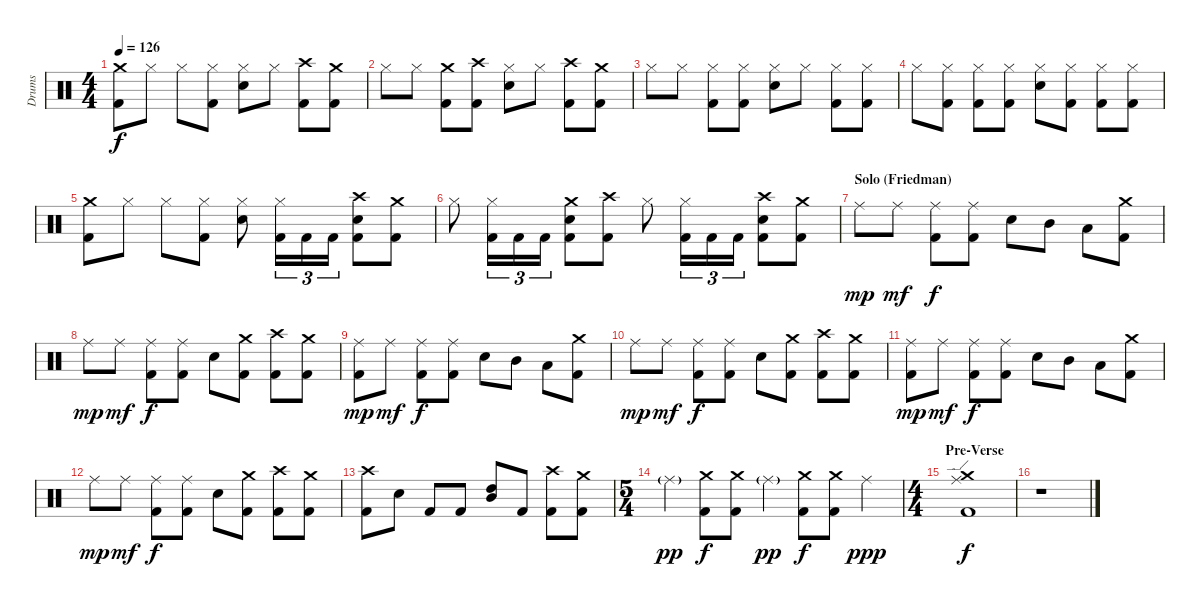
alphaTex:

\bracketExtendMode groupsimilarinstruments
\track ("Drumkit" "Drums") {solo instrument percussion}
\staff {score}
\articulation defaults
\ts (4 4)
\tempo 126
\clef neutral
\ks c
("Crash medium (hit)" "Kick (hit) 2").8{dy f} "Hi-Hat (closed)".8 "Hi-Hat (closed)".8 ("Hi-Hat (closed)" "Kick (hit) 2").8 ("Hi-Hat (closed)" "Snare (hit) 2").8 "Hi-Hat (closed)".8 ("Crash high (hit)" "Kick (hit) 2").8 ("Crash medium (hit)" "Kick (hit) 2").8 |
"Hi-Hat (closed)".8 "Hi-Hat (closed)".8 ("Crash medium (hit)" "Kick (hit) 2").8 ("Crash high (hit)" "Kick (hit) 2").8 ("Hi-Hat (closed)" "Snare (hit) 2").8 "Hi-Hat (closed)".8 ("Crash high (hit)" "Kick (hit) 2").8 ("Crash medium (hit)" "Kick (hit) 2").8 |
"Hi-Hat (closed)".8 "Hi-Hat (closed)".8 ("Hi-Hat (closed)" "Kick (hit) 2").8 ("Hi-Hat (closed)" "Kick (hit) 2").8 ("Hi-Hat (closed)" "Snare (hit) 2").8 "Hi-Hat (closed)".8 ("Hi-Hat (closed)" "Kick (hit) 2").8 ("Hi-Hat (closed)" "Kick (hit) 2").8 |
"Hi-Hat (closed)".8 ("Hi-Hat (closed)" "Kick (hit) 2").8 ("Hi-Hat (closed)" "Kick (hit) 2").8 ("Hi-Hat (closed)" "Kick (hit) 2").8 ("Hi-Hat (closed)" "Snare (hit) 2").8 ("Hi-Hat (closed)" "Kick (hit) 2").8 ("Hi-Hat (closed)" "Kick (hit) 2").8 ("Hi-Hat (closed)" "Kick (hit) 2").8 |
("Crash medium (hit)" "Kick (hit) 2").8 "Hi-Hat (closed)".8 "Hi-Hat (closed)".8 ("Hi-Hat (closed)" "Kick (hit) 2").8 ("Hi-Hat (closed)" "Snare (hit) 2").8 ("Hi-Hat (closed)" "Kick (hit) 2").16{tu (3 2)} "Kick (hit) 2".16{tu (3 2)} "Kick (hit) 2".16{tu (3 2)} ("Crash high (hit)" "Snare (hit) 2" "Kick (hit) 2").8 ("Crash medium (hit)" "Kick (hit) 2").8 |
"Hi-Hat (closed)".8 ("Hi-Hat (closed)" "Kick (hit) 2").16{tu (3 2)} "Kick (hit) 2".16{tu (3 2)} "Kick (hit) 2".16{tu (3 2)} ("Crash medium (hit)" "Snare (hit) 2" "Kick (hit) 2").8 ("Crash high (hit)" "Kick (hit) 2").8 "Hi-Hat (closed)".8 ("Hi-Hat (closed)" "Kick (hit) 2").16{tu (3 2)} "Kick (hit) 2".16{tu (3 2)} "Kick (hit) 2".16{tu (3 2)} ("Crash high (hit)" "Snare (hit) 2" "Kick (hit) 2").8 ("Crash medium (hit)" "Kick (hit) 2").8 |
\section ("" "Solo (Friedman)")
"Ride (middle)".8{dy mp} "Ride (middle)".8{dy mf} ("Ride (middle)" "Kick (hit) 2").8{dy f} ("Ride (middle)" "Kick (hit) 2").8 "Snare (hit) 2".8 "Mid Tom (hit)".8 "Low Tom (hit)".8 ("Crash medium (hit)" "Kick (hit) 2").8 |
"Ride (middle)".8{dy mp} "Ride (middle)".8{dy mf} ("Ride (middle)" "Kick (hit) 2").8{dy f} ("Ride (middle)" "Kick (hit) 2").8 "Snare (hit) 2".8 ("Crash medium (hit)" "Kick (hit) 2").8 ("Crash high (hit)" "Kick (hit) 2").8 ("Crash medium (hit)" "Kick (hit) 2").8 |
("Ride (middle)" "Kick (hit) 2").8{dy mp} "Ride (middle)".8{dy mf} ("Ride (middle)" "Kick (hit) 2").8{dy f} ("Ride (middle)" "Kick (hit) 2").8 "Snare (hit) 2".8 "Mid Tom (hit)".8 "Low Tom (hit)".8 ("Crash medium (hit)" "Kick (hit) 2").8 |
"Ride (middle)".8{dy mp} "Ride (middle)".8{dy mf} ("Ride (middle)" "Kick (hit) 2").8{dy f} ("Ride (middle)" "Kick (hit) 2").8 "Snare (hit) 2".8 ("Crash medium (hit)" "Kick (hit) 2").8 ("Crash high (hit)" "Kick (hit) 2").8 ("Crash medium (hit)" "Kick (hit) 2").8 |
("Ride (middle)" "Kick (hit) 2").8{dy mp} "Ride (middle)".8{dy mf} ("Ride (middle)" "Kick (hit) 2").8{dy f} ("Ride (middle)" "Kick (hit) 2").8 "Snare (hit) 2".8 "Mid Tom (hit)".8 "Low Tom (hit)".8 ("Crash medium (hit)" "Kick (hit) 2").8 |
"Ride (middle)".8{dy mp} "Ride (middle)".8{dy mf} ("Ride (middle)" "Kick (hit) 2").8{dy f} ("Ride (middle)" "Kick (hit) 2").8 "Snare (hit) 2".8 ("Crash medium (hit)" "Kick (hit) 2").8 ("Crash high (hit)" "Kick (hit) 2").8 ("Crash medium (hit)" "Kick (hit) 2").8 |
("Crash high (hit)" "Kick (hit) 2").8 "Snare (hit) 2".8 "Kick (hit) 2".8 "Kick (hit) 2".8 ("High Tom (hit)" "Mid Tom (hit)").8 "Kick (hit) 2".8 ("Crash high (hit)" "Kick (hit) 2").8 ("Crash medium (hit)" "Kick (hit) 2").8 |
\ts (5 4)
\beaming (8 4 2 2 2)
"Ride (middle)"{g}.4{dy pp} ("Crash medium (hit)" "Kick (hit) 2").8{dy f} ("Crash medium (hit)" "Kick (hit) 2").8 "Ride (middle)"{g}.4{dy pp} ("Crash medium (hit)" "Kick (hit) 2").8{dy f} ("Crash medium (hit)" "Kick (hit) 2").8 "Ride (middle)".4{dy ppp} |
\ts (4 4)
\beaming (8 2 2 2 2)
\section ("" "Pre-Verse")
("Crash medium (hit)" "Ride (edge)" "Kick (hit) 2").1{dy f} |
r.1
